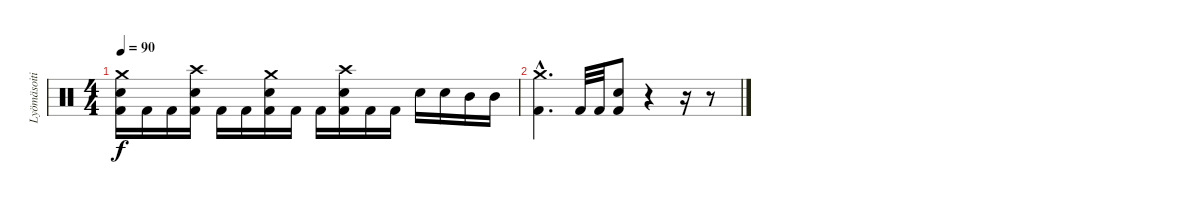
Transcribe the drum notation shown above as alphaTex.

\track ("Lyömäsoitin" "Lyömäsoiti") {instrument percussion}
\staff {score}
\articulation defaults
\ts (4 4)
\tempo 90
\clef neutral
\ks c
("Crash medium (hit)" "Electric Snare (hit)" "Kick (hit) 2").16{dy f} "Kick (hit) 2".16 "Kick (hit) 2".16 ("Crash high (hit)" "Electric Snare (hit)" "Kick (hit) 2").16 "Kick (hit) 2".16 "Kick (hit) 2".16 ("Crash medium (hit)" "Electric Snare (hit)" "Kick (hit) 2").16 "Kick (hit) 2".16 "Kick (hit) 2".16 ("Crash high (hit)" "Electric Snare (hit)" "Kick (hit) 2").16 "Kick (hit) 2".16 "Kick (hit) 2".16 "Electric Snare (hit)".16 "Electric Snare (hit)".16 "Mid Tom (hit)".16 "Mid Tom (hit)".16 |
("Kick (hit) 2"{hac} "Crash medium (hit)"{hac}).4{d} "Kick (hit) 2".32 "Kick (hit) 2".32 ("Kick (hit) 2" "Electric Snare (hit)").8 r.4 r.16 r.8
